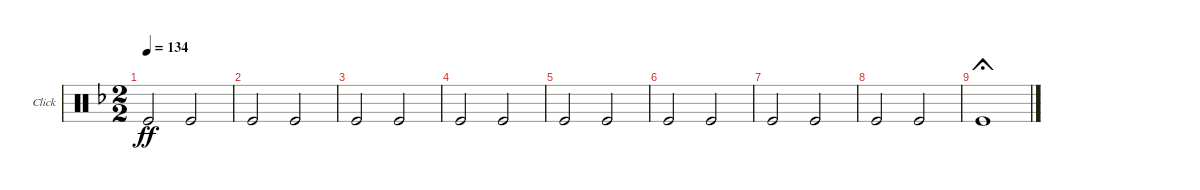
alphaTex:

\bracketExtendMode groupsimilarinstruments
\useSystemSignSeparator
\multiTrackTrackNamePolicy allsystems
\firstSystemTrackNameOrientation horizontal
\otherSystemsTrackNameOrientation horizontal
\track ("Click" "Click") {instrument percussion}
\staff {score}
\articulation defaults
\ts (2 2)
\tempo 134
\clef neutral
\scale
0.298487
\ks f "Kick (hit)".2{dy ff} "Kick (hit)".2
|
\scale
0.193625 "Kick (hit)".2 "Kick (hit)".2 |
\scale
0.225705 "Kick (hit)".2 "Kick (hit)".2 |
\scale
0.238707 "Kick (hit)".2 "Kick (hit)".2 |
\scale
0.222614 "Kick (hit)".2 "Kick (hit)".2 |
\scale
0.22966 "Kick (hit)".2 "Kick (hit)".2 |
\scale
0.217884 "Kick (hit)".2 "Kick (hit)".2 |
\scale
0.196034 "Kick (hit)".2 "Kick (hit)".2 |
\scale
0.11025 "Kick (hit)".1{fermata (short 0)}
